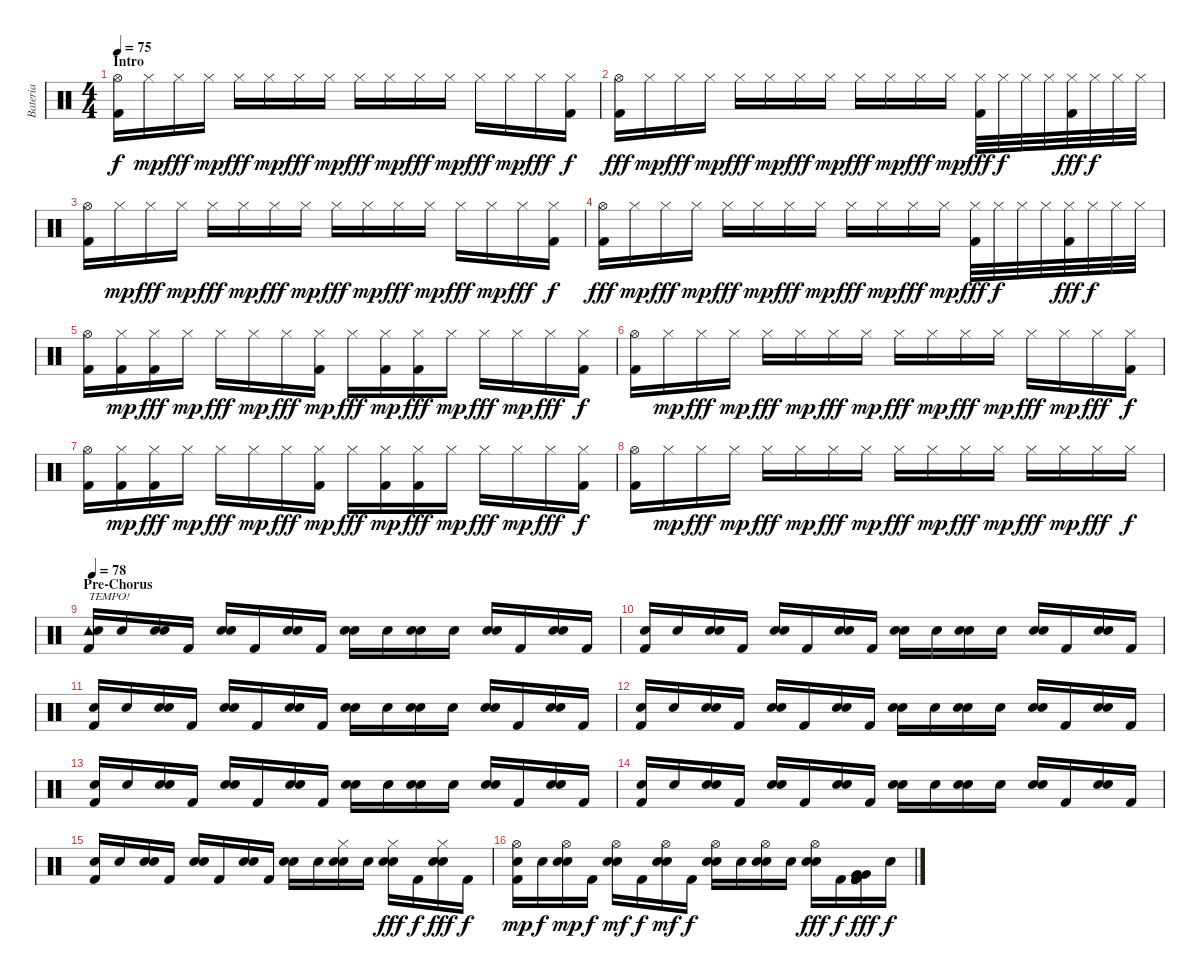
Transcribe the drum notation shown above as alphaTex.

\track ("Bateria" "Bateria") {instrument percussion}
\staff {score}
\articulation defaults
\ts (4 4)
\section ("" "Intro")
\tempo 75
\clef neutral
\ks c
("Hi-Hat (open)" "Kick (hit) 2").16{dy f} "Hi-Hat (closed)".16{dy mp} "Hi-Hat (closed)".16{dy fff} "Hi-Hat (closed)".16{dy mp} "Hi-Hat (closed)".16{dy fff} "Hi-Hat (closed)".16{dy mp} "Hi-Hat (closed)".16{dy fff} "Hi-Hat (closed)".16{dy mp} "Hi-Hat (closed)".16{dy fff} "Hi-Hat (closed)".16{dy mp} "Hi-Hat (closed)".16{dy fff} "Hi-Hat (closed)".16{dy mp} "Hi-Hat (closed)".16{dy fff} "Hi-Hat (closed)".16{dy mp} "Hi-Hat (closed)".16{dy fff} ("Hi-Hat (closed)" "Kick (hit) 2").16{dy f} |
("Hi-Hat (open)" "Kick (hit) 2").16{dy fff} "Hi-Hat (closed)".16{dy mp} "Hi-Hat (closed)".16{dy fff} "Hi-Hat (closed)".16{dy mp} "Hi-Hat (closed)".16{dy fff} "Hi-Hat (closed)".16{dy mp} "Hi-Hat (closed)".16{dy fff} "Hi-Hat (closed)".16{dy mp} "Hi-Hat (closed)".16{dy fff} "Hi-Hat (closed)".16{dy mp} "Hi-Hat (closed)".16{dy fff} "Hi-Hat (closed)".16{dy mp} ("Hi-Hat (closed)" "Kick (hit) 2").32{dy fff} "Hi-Hat (closed)".32{dy f} "Hi-Hat (closed)".32 "Hi-Hat (closed)".32 ("Hi-Hat (closed)" "Kick (hit) 2").32{dy fff} "Hi-Hat (closed)".32{dy f} "Hi-Hat (closed)".32 "Hi-Hat (closed)".32 |
("Hi-Hat (open)" "Kick (hit) 2").16 "Hi-Hat (closed)".16{dy mp} "Hi-Hat (closed)".16{dy fff} "Hi-Hat (closed)".16{dy mp} "Hi-Hat (closed)".16{dy fff} "Hi-Hat (closed)".16{dy mp} "Hi-Hat (closed)".16{dy fff} "Hi-Hat (closed)".16{dy mp} "Hi-Hat (closed)".16{dy fff} "Hi-Hat (closed)".16{dy mp} "Hi-Hat (closed)".16{dy fff} "Hi-Hat (closed)".16{dy mp} "Hi-Hat (closed)".16{dy fff} "Hi-Hat (closed)".16{dy mp} "Hi-Hat (closed)".16{dy fff} ("Hi-Hat (closed)" "Kick (hit) 2").16{dy f} |
("Hi-Hat (open)" "Kick (hit) 2").16{dy fff} "Hi-Hat (closed)".16{dy mp} "Hi-Hat (closed)".16{dy fff} "Hi-Hat (closed)".16{dy mp} "Hi-Hat (closed)".16{dy fff} "Hi-Hat (closed)".16{dy mp} "Hi-Hat (closed)".16{dy fff} "Hi-Hat (closed)".16{dy mp} "Hi-Hat (closed)".16{dy fff} "Hi-Hat (closed)".16{dy mp} "Hi-Hat (closed)".16{dy fff} "Hi-Hat (closed)".16{dy mp} ("Hi-Hat (closed)" "Kick (hit) 2").32{dy fff} "Hi-Hat (closed)".32{dy f} "Hi-Hat (closed)".32 "Hi-Hat (closed)".32 ("Hi-Hat (closed)" "Kick (hit) 2").32{dy fff} "Hi-Hat (closed)".32{dy f} "Hi-Hat (closed)".32 "Hi-Hat (closed)".32 |
("Hi-Hat (open)" "Kick (hit) 2").16 ("Hi-Hat (closed)" "Kick (hit) 2").16{dy mp} ("Hi-Hat (closed)" "Kick (hit) 2").16{dy fff} "Hi-Hat (closed)".16{dy mp} "Hi-Hat (closed)".16{dy fff} "Hi-Hat (closed)".16{dy mp} "Hi-Hat (closed)".16{dy fff} ("Hi-Hat (closed)" "Kick (hit) 2").16{dy mp} "Hi-Hat (closed)".16{dy fff} ("Hi-Hat (closed)" "Kick (hit) 2").16{dy mp} ("Hi-Hat (closed)" "Kick (hit) 2").16{dy fff} "Hi-Hat (closed)".16{dy mp} "Hi-Hat (closed)".16{dy fff} "Hi-Hat (closed)".16{dy mp} "Hi-Hat (closed)".16{dy fff} ("Hi-Hat (closed)" "Kick (hit) 2").16{dy f} |
("Hi-Hat (open)" "Kick (hit) 2").16 "Hi-Hat (closed)".16{dy mp} "Hi-Hat (closed)".16{dy fff} "Hi-Hat (closed)".16{dy mp} "Hi-Hat (closed)".16{dy fff} "Hi-Hat (closed)".16{dy mp} "Hi-Hat (closed)".16{dy fff} "Hi-Hat (closed)".16{dy mp} "Hi-Hat (closed)".16{dy fff} "Hi-Hat (closed)".16{dy mp} "Hi-Hat (closed)".16{dy fff} "Hi-Hat (closed)".16{dy mp} "Hi-Hat (closed)".16{dy fff} "Hi-Hat (closed)".16{dy mp} "Hi-Hat (closed)".16{dy fff} ("Hi-Hat (closed)" "Kick (hit) 2").16{dy f} |
("Hi-Hat (open)" "Kick (hit) 2").16 ("Hi-Hat (closed)" "Kick (hit) 2").16{dy mp} ("Hi-Hat (closed)" "Kick (hit) 2").16{dy fff} "Hi-Hat (closed)".16{dy mp} "Hi-Hat (closed)".16{dy fff} "Hi-Hat (closed)".16{dy mp} "Hi-Hat (closed)".16{dy fff} ("Hi-Hat (closed)" "Kick (hit) 2").16{dy mp} "Hi-Hat (closed)".16{dy fff} ("Hi-Hat (closed)" "Kick (hit) 2").16{dy mp} ("Hi-Hat (closed)" "Kick (hit) 2").16{dy fff} "Hi-Hat (closed)".16{dy mp} "Hi-Hat (closed)".16{dy fff} "Hi-Hat (closed)".16{dy mp} "Hi-Hat (closed)".16{dy fff} ("Hi-Hat (closed)" "Kick (hit) 2").16{dy f} |
("Hi-Hat (open)" "Kick (hit) 2").16 "Hi-Hat (closed)".16{dy mp} "Hi-Hat (closed)".16{dy fff} "Hi-Hat (closed)".16{dy mp} "Hi-Hat (closed)".16{dy fff} "Hi-Hat (closed)".16{dy mp} "Hi-Hat (closed)".16{dy fff} "Hi-Hat (closed)".16{dy mp} "Hi-Hat (closed)".16{dy fff} "Hi-Hat (closed)".16{dy mp} "Hi-Hat (closed)".16{dy fff} "Hi-Hat (closed)".16{dy mp} "Hi-Hat (closed)".16{dy fff} "Hi-Hat (closed)".16{dy mp} "Hi-Hat (closed)".16{dy fff} "Hi-Hat (closed)".16{dy f} |
\section ("" "Pre-Chorus")
\tempo 78
("Tambourine (hit)" "Electric Snare (hit)" "Kick (hit) 2").16{txt "TEMPO!"} "Snare (hit)"{x}.16 ("Electric Snare (hit)" "Snare (hit)"{x}).16 "Kick (hit) 2"{x}.16 ("Electric Snare (hit)" "Snare (hit)"{x}).16 "Kick (hit) 2".16 ("Electric Snare (hit)" "Snare (hit)"{x}).16 "Kick (hit) 2".16 ("Electric Snare (hit)" "Snare (hit)"{x}).16 "Snare (hit)"{x}.16 ("Electric Snare (hit)" "Snare (hit)"{x}).16 "Snare (hit)"{x}.16 ("Electric Snare (hit)" "Snare (hit)"{x}).16 "Kick (hit) 2".16 ("Electric Snare (hit)" "Snare (hit)"{x}).16 "Kick (hit) 2".16 |
("Electric Snare (hit)" "Kick (hit) 2").16 "Snare (hit)"{x}.16 ("Electric Snare (hit)" "Snare (hit)"{x}).16 "Kick (hit) 2"{x}.16 ("Electric Snare (hit)" "Snare (hit)"{x}).16 "Kick (hit) 2".16 ("Electric Snare (hit)" "Snare (hit)"{x}).16 "Kick (hit) 2".16 ("Electric Snare (hit)" "Snare (hit)"{x}).16 "Snare (hit)"{x}.16 ("Electric Snare (hit)" "Snare (hit)"{x}).16 "Snare (hit)"{x}.16 ("Electric Snare (hit)" "Snare (hit)"{x}).16 "Kick (hit) 2".16 ("Electric Snare (hit)" "Snare (hit)"{x}).16 "Kick (hit) 2".16 |
("Electric Snare (hit)" "Kick (hit) 2").16 "Snare (hit)"{x}.16 ("Electric Snare (hit)" "Snare (hit)"{x}).16 "Kick (hit) 2"{x}.16 ("Electric Snare (hit)" "Snare (hit)"{x}).16 "Kick (hit) 2".16 ("Electric Snare (hit)" "Snare (hit)"{x}).16 "Kick (hit) 2".16 ("Electric Snare (hit)" "Snare (hit)"{x}).16 "Snare (hit)"{x}.16 ("Electric Snare (hit)" "Snare (hit)"{x}).16 "Snare (hit)"{x}.16 ("Electric Snare (hit)" "Snare (hit)"{x}).16 "Kick (hit) 2".16 ("Electric Snare (hit)" "Snare (hit)"{x}).16 "Kick (hit) 2".16 |
("Electric Snare (hit)" "Kick (hit) 2").16 "Snare (hit)"{x}.16 ("Electric Snare (hit)" "Snare (hit)"{x}).16 "Kick (hit) 2"{x}.16 ("Electric Snare (hit)" "Snare (hit)"{x}).16 "Kick (hit) 2".16 ("Electric Snare (hit)" "Snare (hit)"{x}).16 "Kick (hit) 2".16 ("Electric Snare (hit)" "Snare (hit)"{x}).16 "Snare (hit)"{x}.16 ("Electric Snare (hit)" "Snare (hit)"{x}).16 "Snare (hit)"{x}.16 ("Electric Snare (hit)" "Snare (hit)"{x}).16 "Kick (hit) 2".16 ("Electric Snare (hit)" "Snare (hit)"{x}).16 "Kick (hit) 2".16 |
("Electric Snare (hit)" "Kick (hit) 2").16 "Snare (hit)"{x}.16 ("Electric Snare (hit)" "Snare (hit)"{x}).16 "Kick (hit) 2"{x}.16 ("Electric Snare (hit)" "Snare (hit)"{x}).16 "Kick (hit) 2".16 ("Electric Snare (hit)" "Snare (hit)"{x}).16 "Kick (hit) 2".16 ("Electric Snare (hit)" "Snare (hit)"{x}).16 "Snare (hit)"{x}.16 ("Electric Snare (hit)" "Snare (hit)"{x}).16 "Snare (hit)"{x}.16 ("Electric Snare (hit)" "Snare (hit)"{x}).16 "Kick (hit) 2".16 ("Electric Snare (hit)" "Snare (hit)"{x}).16 "Kick (hit) 2".16 |
("Electric Snare (hit)" "Kick (hit) 2").16 "Snare (hit)"{x}.16 ("Electric Snare (hit)" "Snare (hit)"{x}).16 "Kick (hit) 2"{x}.16 ("Electric Snare (hit)" "Snare (hit)"{x}).16 "Kick (hit) 2".16 ("Electric Snare (hit)" "Snare (hit)"{x}).16 "Kick (hit) 2".16 ("Electric Snare (hit)" "Snare (hit)"{x}).16 "Snare (hit)"{x}.16 ("Electric Snare (hit)" "Snare (hit)"{x}).16 "Snare (hit)"{x}.16 ("Electric Snare (hit)" "Snare (hit)"{x}).16 "Kick (hit) 2".16 ("Electric Snare (hit)" "Snare (hit)"{x}).16 "Kick (hit) 2".16 |
("Electric Snare (hit)" "Kick (hit) 2").16 "Snare (hit)"{x}.16 ("Electric Snare (hit)" "Snare (hit)"{x}).16 "Kick (hit) 2"{x}.16 ("Electric Snare (hit)" "Snare (hit)"{x}).16 "Kick (hit) 2".16 ("Electric Snare (hit)" "Snare (hit)"{x}).16 "Kick (hit) 2".16 ("Electric Snare (hit)" "Snare (hit)"{x}).16 "Snare (hit)"{x}.16 ("Hi-Hat (closed)" "Electric Snare (hit)" "Snare (hit)"{x}).16 "Snare (hit)"{x}.16 ("Hi-Hat (closed)" "Electric Snare (hit)" "Snare (hit)"{x}).16{dy fff} "Kick (hit) 2".16{dy f} ("Hi-Hat (closed)" "Electric Snare (hit)" "Snare (hit)"{x}).16{dy fff} "Kick (hit) 2".16{dy f} |
("Hi-Hat (open)" "Electric Snare (hit)" "Kick (hit) 2").16{dy mp} "Snare (hit)"{x}.16{dy f} ("Hi-Hat (open)" "Electric Snare (hit)" "Snare (hit)"{x}).16{dy mp} "Kick (hit) 2"{x}.16{dy f} ("Hi-Hat (open)" "Electric Snare (hit)" "Snare (hit)"{x}).16{dy mf} "Kick (hit) 2".16{dy f} ("Hi-Hat (open)" "Electric Snare (hit)" "Snare (hit)"{x}).16{dy mf} "Kick (hit) 2".16{dy f} ("Hi-Hat (open)" "Electric Snare (hit)" "Snare (hit)"{x}).16 "Snare (hit)"{x}.16 ("Hi-Hat (open)" "Electric Snare (hit)" "Snare (hit)"{x}).16 "Snare (hit)"{x}.16 ("Hi-Hat (open)" "Electric Snare (hit)" "Snare (hit)"{x}).16{dy fff} "Kick (hit) 2"{x}.16{dy f} ("Kick (hit) 2" "Very Low Tom (hit)" "Kick (hit) 2" "Very Low Tom (hit)" "Kick (hit) 2" "Kick (hit) 2").16{dy fff} "Snare (hit)"{x}.16{dy f}
